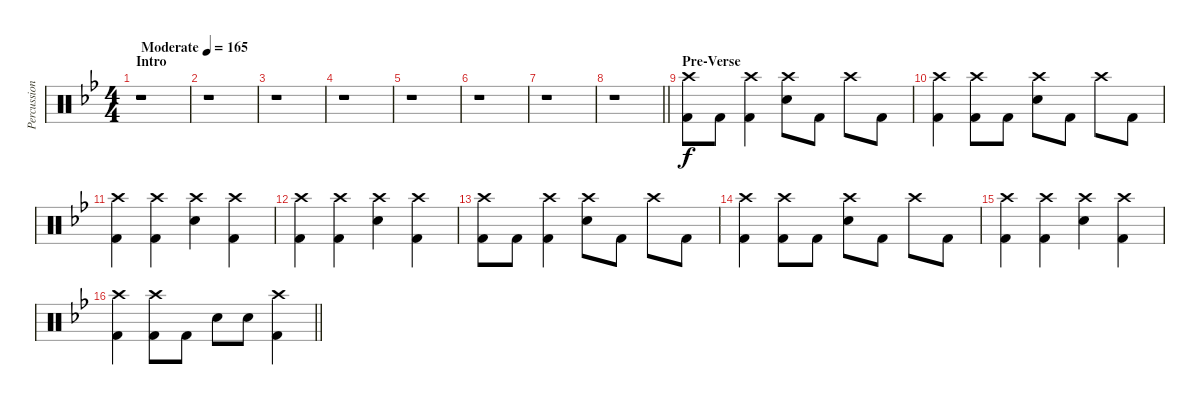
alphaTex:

\track ("Percussion - Aaron" "Percussion") {instrument percussion}
\staff {score}
\articulation defaults
\ts (4 4)
\section ("" "Intro")
\tempo (165 "Moderate")
\clef neutral
\ks gminor
r.1{dy f} |
r.1 |
r.1 |
r.1 |
r.1 |
r.1 |
r.1 |
\barLineRight lightlight
r.1 |
\section ("" "Pre-Verse")
("Crash high (hit)" "Kick (hit) 2").8 "Kick (hit) 2".8 ("Crash high (hit)" "Kick (hit) 2").4 ("Crash high (hit)" "Electric Snare (hit)").8 "Kick (hit) 2".8 "Crash high (hit)".8 "Kick (hit) 2".8 |
("Crash high (hit)" "Kick (hit) 2").4 ("Crash high (hit)" "Kick (hit) 2").8 "Kick (hit) 2".8 ("Crash high (hit)" "Electric Snare (hit)").8 "Kick (hit) 2".8 "Crash high (hit)".8 "Kick (hit) 2".8 |
("Crash high (hit)" "Kick (hit) 2").4 ("Crash high (hit)" "Kick (hit) 2").4 ("Crash high (hit)" "Electric Snare (hit)").4 ("Crash high (hit)" "Kick (hit) 2").4 |
("Crash high (hit)" "Kick (hit) 2").4 ("Crash high (hit)" "Kick (hit) 2").4 ("Crash high (hit)" "Electric Snare (hit)").4 ("Crash high (hit)" "Kick (hit) 2").4 |
("Crash high (hit)" "Kick (hit) 2").8 "Kick (hit) 2".8 ("Crash high (hit)" "Kick (hit) 2").4 ("Crash high (hit)" "Electric Snare (hit)").8 "Kick (hit) 2".8 "Crash high (hit)".8 "Kick (hit) 2".8 |
("Crash high (hit)" "Kick (hit) 2").4 ("Crash high (hit)" "Kick (hit) 2").8 "Kick (hit) 2".8 ("Crash high (hit)" "Electric Snare (hit)").8 "Kick (hit) 2".8 "Crash high (hit)".8 "Kick (hit) 2".8 |
("Crash high (hit)" "Kick (hit) 2").4 ("Crash high (hit)" "Kick (hit) 2").4 ("Crash high (hit)" "Electric Snare (hit)").4 ("Crash high (hit)" "Kick (hit) 2").4 |
\barLineRight lightlight
("Crash high (hit)" "Kick (hit) 2").4 ("Crash high (hit)" "Kick (hit) 2").8 "Kick (hit) 2".8 "Electric Snare (hit)".8 "Electric Snare (hit)".8 ("Crash high (hit)" "Kick (hit) 2").4
